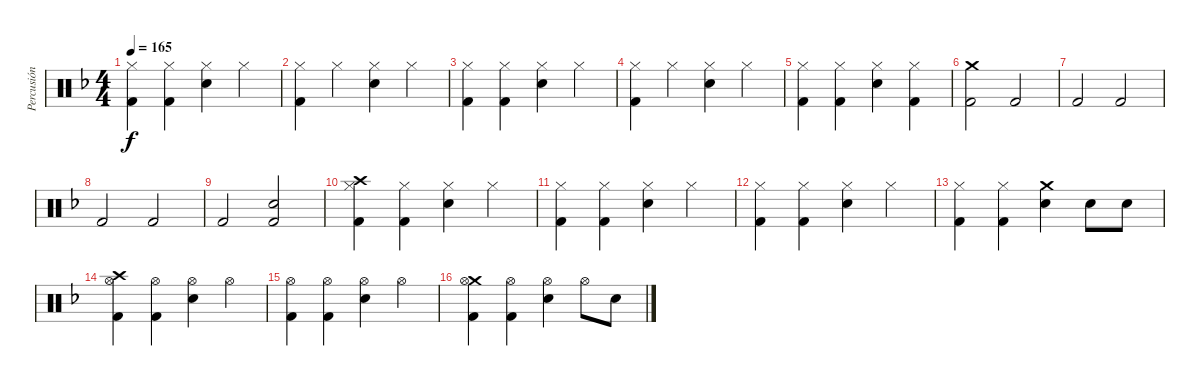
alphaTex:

\track ("Percusión" "Percusión") {instrument percussion}
\staff {score}
\articulation defaults
\ts (4 4)
\tempo 165
\clef neutral
\ks f
("Hi-Hat (closed)" "Kick (hit) 2").4{dy f} ("Hi-Hat (closed)" "Kick (hit) 2").4 ("Hi-Hat (closed)" "Electric Snare (hit)").4 "Hi-Hat (closed)".4 |
("Hi-Hat (closed)" "Kick (hit) 2").4 "Hi-Hat (closed)".4 ("Hi-Hat (closed)" "Electric Snare (hit)").4 "Hi-Hat (closed)".4 |
("Hi-Hat (closed)" "Kick (hit) 2").4 ("Hi-Hat (closed)" "Kick (hit) 2").4 ("Hi-Hat (closed)" "Electric Snare (hit)").4 "Hi-Hat (closed)".4 |
("Hi-Hat (closed)" "Kick (hit) 2").4 "Hi-Hat (closed)".4 ("Hi-Hat (closed)" "Electric Snare (hit)").4 "Hi-Hat (closed)".4 |
("Hi-Hat (closed)" "Kick (hit) 2").4 ("Hi-Hat (closed)" "Kick (hit) 2").4 ("Hi-Hat (closed)" "Electric Snare (hit)").4 ("Hi-Hat (closed)" "Kick (hit) 2").4 |
("Crash medium (hit)" "Kick (hit) 2").2 "Kick (hit) 2".2 |
"Kick (hit) 2".2 "Kick (hit) 2".2 |
"Kick (hit) 2".2 "Kick (hit) 2".2 |
"Kick (hit) 2".2 ("Kick (hit) 2" "Electric Snare (hit)").2 |
("Crash high (hit)" "Hi-Hat (closed)" "Kick (hit) 2").4 ("Hi-Hat (closed)" "Kick (hit) 2").4 ("Hi-Hat (closed)" "Electric Snare (hit)").4 "Hi-Hat (closed)".4 |
("Hi-Hat (closed)" "Kick (hit) 2").4 ("Hi-Hat (closed)" "Kick (hit) 2").4 ("Hi-Hat (closed)" "Electric Snare (hit)").4 "Hi-Hat (closed)".4 |
("Hi-Hat (closed)" "Kick (hit) 2").4 ("Hi-Hat (closed)" "Kick (hit) 2").4 ("Hi-Hat (closed)" "Electric Snare (hit)").4 "Hi-Hat (closed)".4 |
("Hi-Hat (closed)" "Kick (hit) 2").4 ("Hi-Hat (closed)" "Kick (hit) 2").4 ("Crash medium (hit)" "Electric Snare (hit)").4 "Electric Snare (hit)".8 "Electric Snare (hit)".8 |
("Crash high (hit)" "Hi-Hat (open)" "Kick (hit) 2").4 ("Hi-Hat (open)" "Kick (hit) 2").4 ("Hi-Hat (open)" "Electric Snare (hit)").4 "Hi-Hat (open)".4 |
("Hi-Hat (open)" "Kick (hit) 2").4 ("Hi-Hat (open)" "Kick (hit) 2").4 ("Hi-Hat (open)" "Electric Snare (hit)").4 "Hi-Hat (open)".4 |
("Crash medium (hit)" "Hi-Hat (open)" "Kick (hit) 2").4 ("Hi-Hat (open)" "Kick (hit) 2").4 ("Hi-Hat (open)" "Electric Snare (hit)").4 "Hi-Hat (open)".8 "Electric Snare (hit)".8
